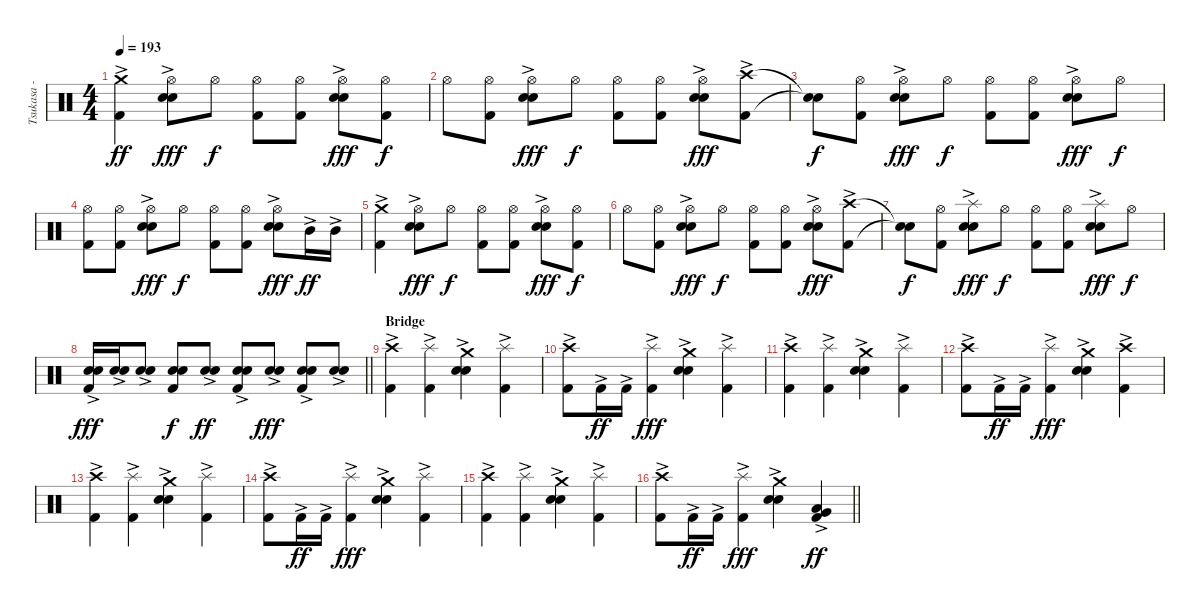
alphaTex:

\track ("Tsukasa - Drums" "Tsukasa - ") {instrument percussion}
\staff {score}
\articulation defaults
\ts (4 4)
\section ("" "")
\tempo 193
\clef neutral
\ks c
("Crash medium (hit)"{ac} "Kick (hit) 2").4{dy ff} ("Hi-Hat (open)" "Electric Snare (hit)"{ac} "Snare (hit) 2").8{dy fff} "Hi-Hat (open)".8{dy f} ("Hi-Hat (open)" "Kick (hit) 2").8 ("Hi-Hat (open)" "Kick (hit) 2").8 ("Hi-Hat (open)" "Electric Snare (hit)"{ac} "Snare (hit) 2").8{dy fff} ("Hi-Hat (open)" "Kick (hit) 2").8{dy f} |
"Hi-Hat (open)".8 ("Hi-Hat (open)" "Kick (hit) 2").8 ("Hi-Hat (open)" "Electric Snare (hit)"{ac} "Snare (hit) 2").8{dy fff} "Hi-Hat (open)".8{dy f} ("Hi-Hat (open)" "Kick (hit) 2").8 ("Hi-Hat (open)" "Kick (hit) 2").8 ("Hi-Hat (open)" "Electric Snare (hit)"{ac} "Snare (hit) 2").8{dy fff} ("Crash high (hit)"{ac} "Kick (hit) 2").8 |
("Snare (hit)"{t} "Snare (hit)"{t}).8{dy f} ("Hi-Hat (open)" "Kick (hit) 2").8 ("Hi-Hat (open)" "Electric Snare (hit)"{ac} "Snare (hit) 2").8{dy fff} "Hi-Hat (open)".8{dy f} ("Hi-Hat (open)" "Kick (hit) 2").8 ("Hi-Hat (open)" "Kick (hit) 2").8 ("Hi-Hat (open)" "Electric Snare (hit)"{ac} "Snare (hit) 2").8{dy fff} "Hi-Hat (open)".8{dy f} |
("Hi-Hat (open)" "Kick (hit) 2").8 ("Hi-Hat (open)" "Kick (hit) 2").8 ("Hi-Hat (open)" "Electric Snare (hit)"{ac} "Snare (hit) 2").8{dy fff} "Hi-Hat (open)".8{dy f} ("Hi-Hat (open)" "Kick (hit) 2").8 ("Hi-Hat (open)" "Kick (hit) 2").8 ("Hi-Hat (open)" "Electric Snare (hit)"{ac} "Snare (hit) 2").8{dy fff} "Mid Tom (hit)"{ac}.16{dy ff} "Mid Tom (hit)"{ac}.16 |
("Crash medium (hit)"{ac} "Kick (hit) 2").4 ("Hi-Hat (open)" "Electric Snare (hit)"{ac} "Snare (hit) 2").8{dy fff} "Hi-Hat (open)".8{dy f} ("Hi-Hat (open)" "Kick (hit) 2").8 ("Hi-Hat (open)" "Kick (hit) 2").8 ("Hi-Hat (open)" "Electric Snare (hit)"{ac} "Snare (hit) 2").8{dy fff} ("Hi-Hat (open)" "Kick (hit) 2").8{dy f} |
"Hi-Hat (open)".8 ("Hi-Hat (open)" "Kick (hit) 2").8 ("Hi-Hat (open)" "Electric Snare (hit)"{ac} "Snare (hit) 2").8{dy fff} "Hi-Hat (open)".8{dy f} ("Hi-Hat (open)" "Kick (hit) 2").8 ("Hi-Hat (open)" "Kick (hit) 2").8 ("Hi-Hat (open)" "Electric Snare (hit)"{ac} "Snare (hit) 2").8{dy fff} ("Crash high (hit)"{ac} "Kick (hit) 2").8 |
("Snare (hit)"{t} "Snare (hit)"{t}).8{dy f} ("Hi-Hat (open)" "Kick (hit) 2").8 ("Splash (hit)"{ac} "Electric Snare (hit)"{ac} "Snare (hit) 2").8{dy fff} "Hi-Hat (open)".8{dy f} ("Hi-Hat (open)" "Kick (hit) 2").8 ("Hi-Hat (open)" "Kick (hit) 2").8 ("Splash (hit)"{ac} "Electric Snare (hit)"{ac} "Snare (hit) 2").8{dy fff} "Hi-Hat (open)".8{dy f} |
\barLineRight lightlight
("Electric Snare (hit)"{ac} "Snare (hit) 2" "Kick (hit) 2").16{dy fff} ("Electric Snare (hit)"{ac} "Snare (hit) 2").16 ("Electric Snare (hit)"{ac} "Snare (hit) 2").8 ("Electric Snare (hit)" "Snare (hit) 2" "Kick (hit) 2").8{dy f} ("Electric Snare (hit)"{ac} "Snare (hit) 2").8{dy ff} ("Electric Snare (hit)"{ac} "Snare (hit) 2" "Kick (hit) 2").8 ("Electric Snare (hit)"{ac} "Snare (hit) 2").8{dy fff} ("Electric Snare (hit)"{ac} "Snare (hit) 2" "Kick (hit) 2").8 ("Electric Snare (hit)"{ac} "Snare (hit) 2").8 |
\section ("" "Bridge")
("Crash high (hit)"{ac} "Kick (hit) 2").4 ("Splash (hit)"{ac} "Kick (hit) 2").4 ("Crash medium (hit)"{ac} "Electric Snare (hit)"{ac} "Snare (hit) 2").4 ("Splash (hit)"{ac} "Kick (hit) 2").4 |
("Crash high (hit)"{ac} "Kick (hit) 2").8 "Kick (hit) 2"{ac}.16{dy ff} "Kick (hit) 2"{ac}.16 ("Splash (hit)"{ac} "Kick (hit) 2").4{dy fff} ("Crash medium (hit)"{ac} "Electric Snare (hit)"{ac} "Snare (hit) 2").4 ("Splash (hit)"{ac} "Kick (hit) 2").4 |
("Crash high (hit)"{ac} "Kick (hit) 2").4 ("Splash (hit)"{ac} "Kick (hit) 2").4 ("Crash medium (hit)"{ac} "Electric Snare (hit)"{ac} "Snare (hit) 2").4 ("Splash (hit)"{ac} "Kick (hit) 2").4 |
("Crash high (hit)"{ac} "Kick (hit) 2").8 "Kick (hit) 2"{ac}.16{dy ff} "Kick (hit) 2"{ac}.16 ("Splash (hit)"{ac} "Kick (hit) 2").4{dy fff} ("Crash medium (hit)"{ac} "Electric Snare (hit)"{ac} "Snare (hit) 2").4 ("Crash high (hit)"{ac} "Kick (hit) 2").4 |
("Crash high (hit)"{ac} "Kick (hit) 2").4 ("Splash (hit)"{ac} "Kick (hit) 2").4 ("Crash medium (hit)"{ac} "Electric Snare (hit)"{ac} "Snare (hit) 2").4 ("Splash (hit)"{ac} "Kick (hit) 2").4 |
("Crash high (hit)"{ac} "Kick (hit) 2").8 "Kick (hit) 2"{ac}.16{dy ff} "Kick (hit) 2"{ac}.16 ("Splash (hit)"{ac} "Kick (hit) 2").4{dy fff} ("Crash medium (hit)"{ac} "Electric Snare (hit)"{ac} "Snare (hit) 2").4 ("Splash (hit)"{ac} "Kick (hit) 2").4 |
("Crash high (hit)"{ac} "Kick (hit) 2").4 ("Splash (hit)"{ac} "Kick (hit) 2").4 ("Crash medium (hit)"{ac} "Electric Snare (hit)"{ac} "Snare (hit) 2").4 ("Splash (hit)"{ac} "Kick (hit) 2").4 |
\barLineRight lightlight
("Crash high (hit)"{ac} "Kick (hit) 2").8 "Kick (hit) 2"{ac}.16{dy ff} "Kick (hit) 2"{ac}.16 ("Splash (hit)"{ac} "Kick (hit) 2").4{dy fff} ("Crash medium (hit)"{ac} "Electric Snare (hit)"{ac} "Snare (hit) 2").4 ("Low Tom (hit)"{ac} "Very Low Tom (hit)" "Kick (hit) 2").4{dy ff}
